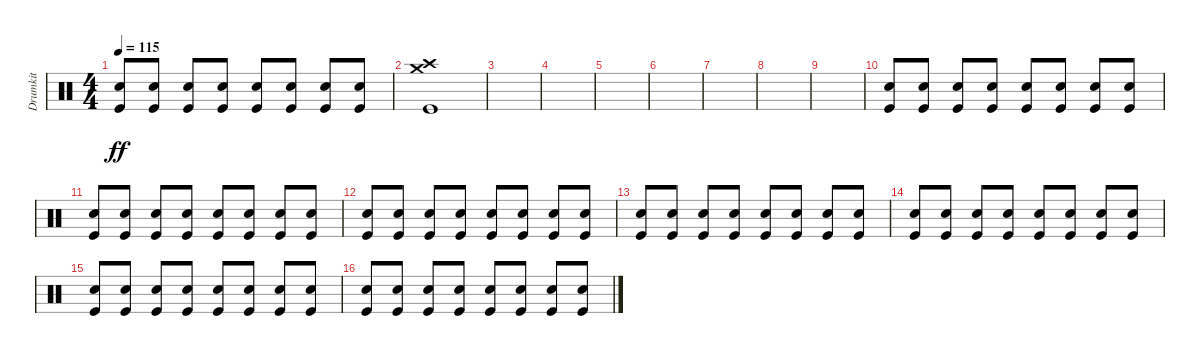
\track ("Drumkit" "Drumkit") {instrument percussion}
\staff {score}
\articulation defaults
\ts (4 4)
\tempo 115
\clef neutral
\ks c
("Kick (hit)" "Snare (hit) 2").8{dy ff} ("Kick (hit)" "Snare (hit) 2").8 ("Kick (hit)" "Snare (hit) 2").8 ("Kick (hit)" "Snare (hit) 2").8 ("Kick (hit)" "Snare (hit) 2").8 ("Kick (hit)" "Snare (hit) 2").8 ("Kick (hit)" "Snare (hit) 2").8 ("Kick (hit)" "Snare (hit) 2").8 |
("Crash high (hit)" "Crash medium (hit)" "Kick (hit)").1 |
|
|
|
|
|
|
|
("Kick (hit)" "Snare (hit) 2").8 ("Kick (hit)" "Snare (hit) 2").8 ("Kick (hit)" "Snare (hit) 2").8 ("Kick (hit)" "Snare (hit) 2").8 ("Kick (hit)" "Snare (hit) 2").8 ("Kick (hit)" "Snare (hit) 2").8 ("Kick (hit)" "Snare (hit) 2").8 ("Kick (hit)" "Snare (hit) 2").8 |
("Kick (hit)" "Snare (hit) 2").8 ("Kick (hit)" "Snare (hit) 2").8 ("Kick (hit)" "Snare (hit) 2").8 ("Kick (hit)" "Snare (hit) 2").8 ("Kick (hit)" "Snare (hit) 2").8 ("Kick (hit)" "Snare (hit) 2").8 ("Kick (hit)" "Snare (hit) 2").8 ("Kick (hit)" "Snare (hit) 2").8 |
("Kick (hit)" "Snare (hit) 2").8 ("Kick (hit)" "Snare (hit) 2").8 ("Kick (hit)" "Snare (hit) 2").8 ("Kick (hit)" "Snare (hit) 2").8 ("Kick (hit)" "Snare (hit) 2").8 ("Kick (hit)" "Snare (hit) 2").8 ("Kick (hit)" "Snare (hit) 2").8 ("Kick (hit)" "Snare (hit) 2").8 |
("Kick (hit)" "Snare (hit) 2").8 ("Kick (hit)" "Snare (hit) 2").8 ("Kick (hit)" "Snare (hit) 2").8 ("Kick (hit)" "Snare (hit) 2").8 ("Kick (hit)" "Snare (hit) 2").8 ("Kick (hit)" "Snare (hit) 2").8 ("Kick (hit)" "Snare (hit) 2").8 ("Kick (hit)" "Snare (hit) 2").8 |
("Kick (hit)" "Snare (hit) 2").8 ("Kick (hit)" "Snare (hit) 2").8 ("Kick (hit)" "Snare (hit) 2").8 ("Kick (hit)" "Snare (hit) 2").8 ("Kick (hit)" "Snare (hit) 2").8 ("Kick (hit)" "Snare (hit) 2").8 ("Kick (hit)" "Snare (hit) 2").8 ("Kick (hit)" "Snare (hit) 2").8 |
("Kick (hit)" "Snare (hit) 2").8 ("Kick (hit)" "Snare (hit) 2").8 ("Kick (hit)" "Snare (hit) 2").8 ("Kick (hit)" "Snare (hit) 2").8 ("Kick (hit)" "Snare (hit) 2").8 ("Kick (hit)" "Snare (hit) 2").8 ("Kick (hit)" "Snare (hit) 2").8 ("Kick (hit)" "Snare (hit) 2").8 |
("Kick (hit)" "Snare (hit) 2").8 ("Kick (hit)" "Snare (hit) 2").8 ("Kick (hit)" "Snare (hit) 2").8 ("Kick (hit)" "Snare (hit) 2").8 ("Kick (hit)" "Snare (hit) 2").8 ("Kick (hit)" "Snare (hit) 2").8 ("Kick (hit)" "Snare (hit) 2").8 ("Kick (hit)" "Snare (hit) 2").8
